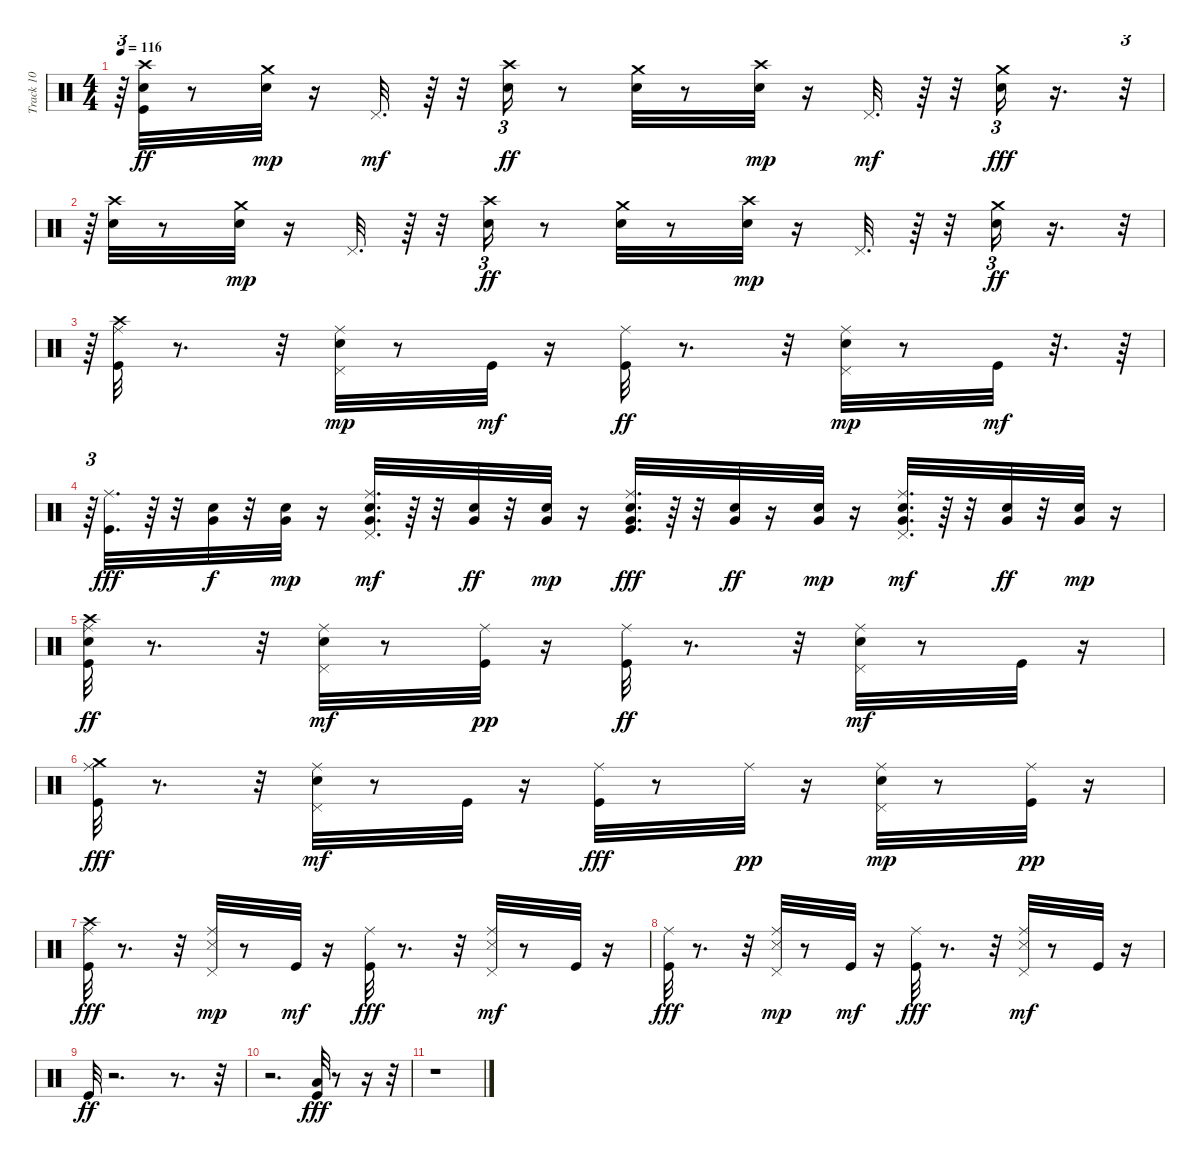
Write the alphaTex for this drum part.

\track ("Track 10" "Track 10") {instrument percussion}
\staff {score}
\articulation defaults
\ts (4 4)
\tempo 116
\clef neutral
\ks c
r.64{tu (3 2) dy mp} ("Electric Snare (hit)" "Crash high (hit)" "Kick (hit)").32{dy ff} r.8 ("Crash medium (hit)" "Electric Snare (hit)").32{dy mp} r.16 "Pedal Hi-Hat (hit)".32{d dy mf} r.64 r.32 ("Electric Snare (hit)" "Crash high (hit)").16{tu (3 2) dy ff} r.8 ("Electric Snare (hit)" "Crash medium (hit)").32 r.8 ("Crash high (hit)" "Electric Snare (hit)").32{dy mp} r.16 "Pedal Hi-Hat (hit)".32{d dy mf} r.64 r.32 ("Electric Snare (hit)" "Crash medium (hit)").16{tu (3 2) dy fff} r.16{d} r.32{tu (3 2)} |
r.64{tu (3 2)} ("Electric Snare (hit)" "Crash high (hit)").32 r.8 ("Crash medium (hit)" "Electric Snare (hit)").32{dy mp} r.16 "Pedal Hi-Hat (hit)".32{d} r.64 r.32 ("Electric Snare (hit)" "Crash high (hit)").16{tu (3 2) dy ff} r.8 ("Electric Snare (hit)" "Crash medium (hit)").32 r.8 ("Crash high (hit)" "Electric Snare (hit)").32{dy mp} r.16 "Pedal Hi-Hat (hit)".32{d} r.64 r.32 ("Electric Snare (hit)" "Crash medium (hit)").16{tu (3 2) dy ff} r.16{d} r.32{tu (3 2)} |
r.64{tu (3 2)} ("Ride (middle)" "Crash high (hit)" "Kick (hit)").32 r.8{d} r.32 ("Electric Snare (hit)" "Ride (middle)" "Pedal Hi-Hat (hit)").32{dy mp} r.8 "Kick (hit)".32{dy mf} r.16 ("Ride (middle)" "Kick (hit)").32{dy ff} r.8{d} r.32 ("Electric Snare (hit)" "Ride (middle)" "Pedal Hi-Hat (hit)").32{dy mp} r.8 "Kick (hit)".32{dy mf} r.32{d} r.64 |
r.64{tu (3 2)} ("Ride (middle)" "Kick (hit)").32{d dy fff} r.64 r.32 ("Electric Snare (hit)" "Very Low Tom (hit)").32{dy f} r.32 ("Very Low Tom (hit)" "Electric Snare (hit)").32{dy mp} r.16 ("Electric Snare (hit)" "Ride (middle)" "Pedal Hi-Hat (hit)" "Very Low Tom (hit)").32{d dy mf} r.64 r.32 ("Electric Snare (hit)" "Very Low Tom (hit)").32{dy ff} r.32 ("Very Low Tom (hit)" "Electric Snare (hit)").32{dy mp} r.16 ("Electric Snare (hit)" "Ride (middle)" "Kick (hit)" "Very Low Tom (hit)").32{d dy fff} r.64 r.32 ("Electric Snare (hit)" "Very Low Tom (hit)").32{dy ff} r.16 ("Very Low Tom (hit)" "Electric Snare (hit)").32{dy mp} r.16 ("Electric Snare (hit)" "Ride (middle)" "Pedal Hi-Hat (hit)" "Very Low Tom (hit)").32{d dy mf} r.64 r.32 ("Electric Snare (hit)" "Very Low Tom (hit)").32{dy ff} r.32 ("Very Low Tom (hit)" "Electric Snare (hit)").32{dy mp} r.16 |
("Electric Snare (hit)" "Ride (middle)" "Crash high (hit)" "Kick (hit)").32{dy ff} r.8{d} r.32 ("Electric Snare (hit)" "Ride (middle)" "Pedal Hi-Hat (hit)").32{dy mf} r.8 ("Kick (hit)" "Ride (middle)").32{dy pp} r.16 ("Ride (middle)" "Kick (hit)").32{dy ff} r.8{d} r.32 ("Electric Snare (hit)" "Ride (middle)" "Pedal Hi-Hat (hit)").32{dy mf} r.8 "Kick (hit)".32 r.16 |
("Ride (middle)" "Crash medium (hit)" "Kick (hit)").32{dy fff} r.8{d} r.32 ("Electric Snare (hit)" "Ride (middle)" "Pedal Hi-Hat (hit)").32{dy mf} r.8 "Kick (hit)".32 r.16 ("Ride (middle)" "Kick (hit)").32{dy fff} r.8 "Ride (middle)".32{dy pp} r.16 ("Electric Snare (hit)" "Ride (middle)" "Pedal Hi-Hat (hit)").32{dy mp} r.8 ("Kick (hit)" "Ride (middle)").32{dy pp} r.16 |
("Ride (middle)" "Crash high (hit)" "Kick (hit)").32{dy fff} r.8{d} r.32 ("Snare (side stick) 3" "Ride (middle)" "Pedal Hi-Hat (hit)").32{dy mp} r.8 "Kick (hit)".32{dy mf} r.16 ("Ride (middle)" "Kick (hit)").32{dy fff} r.8{d} r.32 ("Snare (side stick) 3" "Ride (middle)" "Pedal Hi-Hat (hit)").32{dy mf} r.8 "Kick (hit)".32 r.16 |
("Ride (middle)" "Kick (hit)").32{dy fff} r.8{d} r.32 ("Snare (side stick) 3" "Ride (middle)" "Pedal Hi-Hat (hit)").32{dy mp} r.8 "Kick (hit)".32{dy mf} r.16 ("Ride (middle)" "Kick (hit)").32{dy fff} r.8{d} r.32 ("Snare (side stick) 3" "Ride (middle)" "Pedal Hi-Hat (hit)").32{dy mf} r.8 "Kick (hit)".32 r.16 |
"Kick (hit)".32{dy ff} r.2{d} r.8{d} r.32 |
r.2{d} ("Kick (hit)" "Low Floor Tom (hit)").32{dy fff} r.8 r.16 r.32 |
r.1
